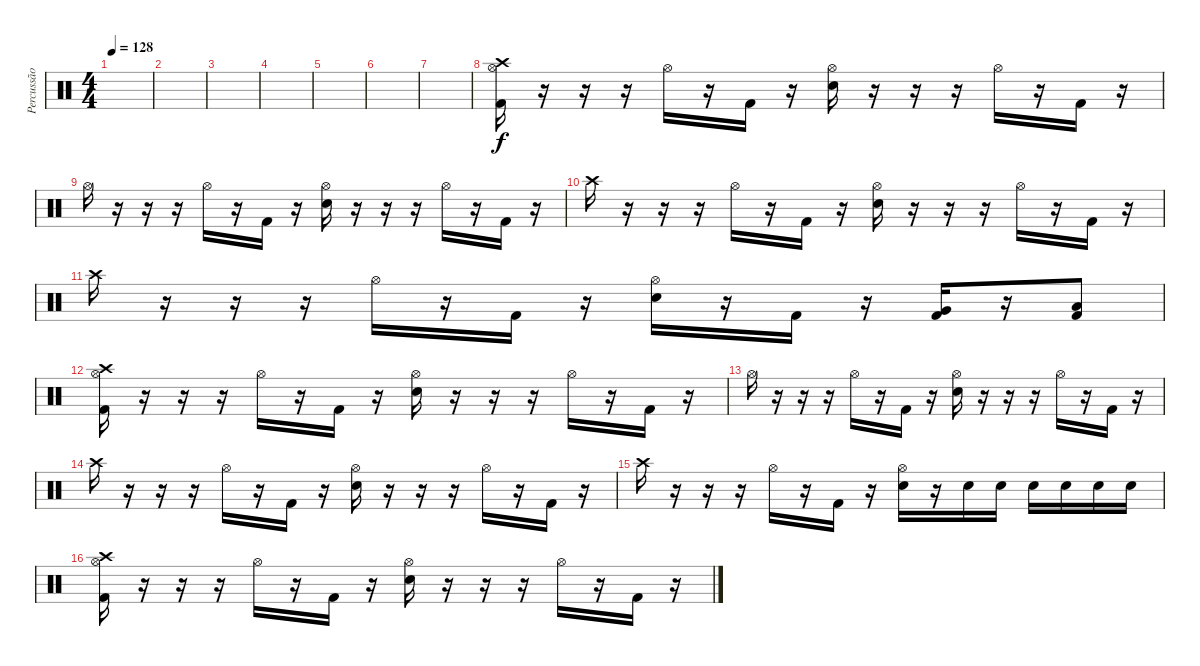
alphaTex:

\track ("Percussão" "Percussão") {instrument percussion}
\staff {score}
\articulation defaults
\ts (4 4)
\tempo 128
\clef neutral
\ks c
|
|
|
|
|
|
|
("Crash high (hit)" "Hi-Hat (open)" "Kick (hit) 2").16 r.16 r.16 r.16 "Hi-Hat (open)".16 r.16 "Kick (hit) 2".16 r.16 ("Hi-Hat (open)" "Electric Snare (hit)").16 r.16 r.16 r.16 "Hi-Hat (open)".16 r.16 "Kick (hit) 2".16 r.16 |
"Hi-Hat (open)".16 r.16 r.16 r.16 "Hi-Hat (open)".16 r.16 "Kick (hit) 2".16 r.16 ("Hi-Hat (open)" "Electric Snare (hit)").16 r.16 r.16 r.16 "Hi-Hat (open)".16 r.16 "Kick (hit) 2".16 r.16 |
"Crash high (hit)".16 r.16 r.16 r.16 "Hi-Hat (open)".16 r.16 "Kick (hit) 2".16 r.16 ("Hi-Hat (open)" "Electric Snare (hit)").16 r.16 r.16 r.16 "Hi-Hat (open)".16 r.16 "Kick (hit) 2".16 r.16 |
"Crash high (hit)".16 r.16 r.16 r.16 "Hi-Hat (open)".16 r.16 "Kick (hit) 2".16 r.16 ("Hi-Hat (open)" "Electric Snare (hit)").16 r.16 "Kick (hit) 2".16 r.16 ("Very Low Tom (hit)" "Kick (hit) 2").16 r.16 ("Low Floor Tom (hit)" "Kick (hit) 2").8 |
("Crash high (hit)" "Hi-Hat (open)" "Kick (hit) 2").16 r.16 r.16 r.16 "Hi-Hat (open)".16 r.16 "Kick (hit) 2".16 r.16 ("Hi-Hat (open)" "Electric Snare (hit)").16 r.16 r.16 r.16 "Hi-Hat (open)".16 r.16 "Kick (hit) 2".16 r.16 |
"Hi-Hat (open)".16 r.16 r.16 r.16 "Hi-Hat (open)".16 r.16 "Kick (hit) 2".16 r.16 ("Hi-Hat (open)" "Electric Snare (hit)").16 r.16 r.16 r.16 "Hi-Hat (open)".16 r.16 "Kick (hit) 2".16 r.16 |
"Crash high (hit)".16 r.16 r.16 r.16 "Hi-Hat (open)".16 r.16 "Kick (hit) 2".16 r.16 ("Hi-Hat (open)" "Electric Snare (hit)").16 r.16 r.16 r.16 "Hi-Hat (open)".16 r.16 "Kick (hit) 2".16 r.16 |
"Crash high (hit)".16 r.16 r.16 r.16 "Hi-Hat (open)".16 r.16 "Kick (hit) 2".16 r.16 ("Hi-Hat (open)" "Electric Snare (hit)").16 r.16 "Electric Snare (hit)".16 "Electric Snare (hit)".16 "Electric Snare (hit)".16 "Electric Snare (hit)".16 "Electric Snare (hit)".16 "Electric Snare (hit)".16 |
("Crash high (hit)" "Hi-Hat (open)" "Kick (hit) 2").16 r.16 r.16 r.16 "Hi-Hat (open)".16 r.16 "Kick (hit) 2".16 r.16 ("Hi-Hat (open)" "Electric Snare (hit)").16 r.16 r.16 r.16 "Hi-Hat (open)".16 r.16 "Kick (hit) 2".16 r.16
